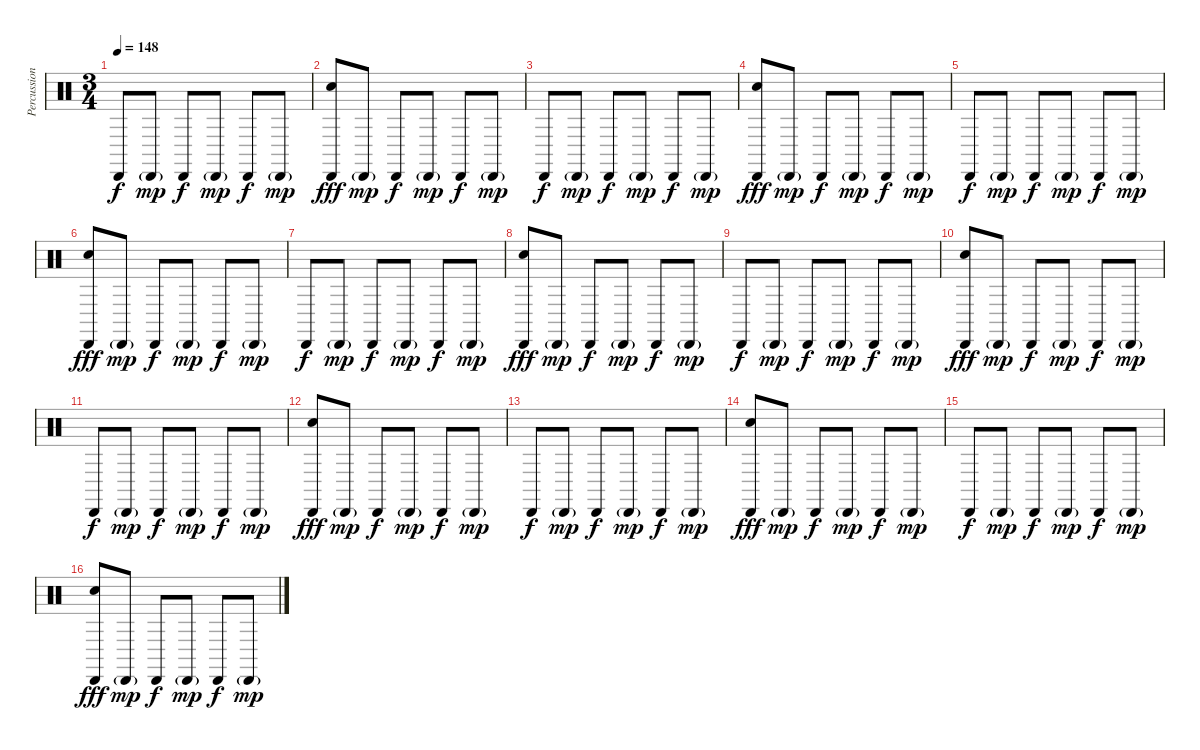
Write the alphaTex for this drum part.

\track ("Percussion" "Percussion") {instrument percussion}
\staff {score}
\articulation defaults
\ts (3 4)
\tempo 148
\clef neutral
\ks c "Cabasa (hit)".8{dy f} "Cabasa (hit)"{g}.8{dy mp} "Cabasa (hit)".8{dy f} "Cabasa (hit)"{g}.8{dy mp} "Cabasa (hit)".8{dy f} "Cabasa (hit)"{g}.8{dy mp}
|
("Cabasa (hit)" "Hand Clap (hit)").8{dy fff} "Cabasa (hit)"{g}.8{dy mp} "Cabasa (hit)".8{dy f} "Cabasa (hit)"{g}.8{dy mp} "Cabasa (hit)".8{dy f} "Cabasa (hit)"{g}.8{dy mp} |
"Cabasa (hit)".8{dy f} "Cabasa (hit)"{g}.8{dy mp} "Cabasa (hit)".8{dy f} "Cabasa (hit)"{g}.8{dy mp} "Cabasa (hit)".8{dy f} "Cabasa (hit)"{g}.8{dy mp} |
("Cabasa (hit)" "Hand Clap (hit)").8{dy fff} "Cabasa (hit)"{g}.8{dy mp} "Cabasa (hit)".8{dy f} "Cabasa (hit)"{g}.8{dy mp} "Cabasa (hit)".8{dy f} "Cabasa (hit)"{g}.8{dy mp} |
"Cabasa (hit)".8{dy f} "Cabasa (hit)"{g}.8{dy mp} "Cabasa (hit)".8{dy f} "Cabasa (hit)"{g}.8{dy mp} "Cabasa (hit)".8{dy f} "Cabasa (hit)"{g}.8{dy mp} |
("Cabasa (hit)" "Hand Clap (hit)").8{dy fff} "Cabasa (hit)"{g}.8{dy mp} "Cabasa (hit)".8{dy f} "Cabasa (hit)"{g}.8{dy mp} "Cabasa (hit)".8{dy f} "Cabasa (hit)"{g}.8{dy mp} |
"Cabasa (hit)".8{dy f} "Cabasa (hit)"{g}.8{dy mp} "Cabasa (hit)".8{dy f} "Cabasa (hit)"{g}.8{dy mp} "Cabasa (hit)".8{dy f} "Cabasa (hit)"{g}.8{dy mp} |
("Cabasa (hit)" "Hand Clap (hit)").8{dy fff} "Cabasa (hit)"{g}.8{dy mp} "Cabasa (hit)".8{dy f} "Cabasa (hit)"{g}.8{dy mp} "Cabasa (hit)".8{dy f} "Cabasa (hit)"{g}.8{dy mp} |
"Cabasa (hit)".8{dy f} "Cabasa (hit)"{g}.8{dy mp} "Cabasa (hit)".8{dy f} "Cabasa (hit)"{g}.8{dy mp} "Cabasa (hit)".8{dy f} "Cabasa (hit)"{g}.8{dy mp} |
("Cabasa (hit)" "Hand Clap (hit)").8{dy fff} "Cabasa (hit)"{g}.8{dy mp} "Cabasa (hit)".8{dy f} "Cabasa (hit)"{g}.8{dy mp} "Cabasa (hit)".8{dy f} "Cabasa (hit)"{g}.8{dy mp} |
"Cabasa (hit)".8{dy f} "Cabasa (hit)"{g}.8{dy mp} "Cabasa (hit)".8{dy f} "Cabasa (hit)"{g}.8{dy mp} "Cabasa (hit)".8{dy f} "Cabasa (hit)"{g}.8{dy mp} |
("Cabasa (hit)" "Hand Clap (hit)").8{dy fff} "Cabasa (hit)"{g}.8{dy mp} "Cabasa (hit)".8{dy f} "Cabasa (hit)"{g}.8{dy mp} "Cabasa (hit)".8{dy f} "Cabasa (hit)"{g}.8{dy mp} |
"Cabasa (hit)".8{dy f} "Cabasa (hit)"{g}.8{dy mp} "Cabasa (hit)".8{dy f} "Cabasa (hit)"{g}.8{dy mp} "Cabasa (hit)".8{dy f} "Cabasa (hit)"{g}.8{dy mp} |
("Cabasa (hit)" "Hand Clap (hit)").8{dy fff} "Cabasa (hit)"{g}.8{dy mp} "Cabasa (hit)".8{dy f} "Cabasa (hit)"{g}.8{dy mp} "Cabasa (hit)".8{dy f} "Cabasa (hit)"{g}.8{dy mp} |
"Cabasa (hit)".8{dy f} "Cabasa (hit)"{g}.8{dy mp} "Cabasa (hit)".8{dy f} "Cabasa (hit)"{g}.8{dy mp} "Cabasa (hit)".8{dy f} "Cabasa (hit)"{g}.8{dy mp} |
("Cabasa (hit)" "Hand Clap (hit)").8{dy fff} "Cabasa (hit)"{g}.8{dy mp} "Cabasa (hit)".8{dy f} "Cabasa (hit)"{g}.8{dy mp} "Cabasa (hit)".8{dy f} "Cabasa (hit)"{g}.8{dy mp}
